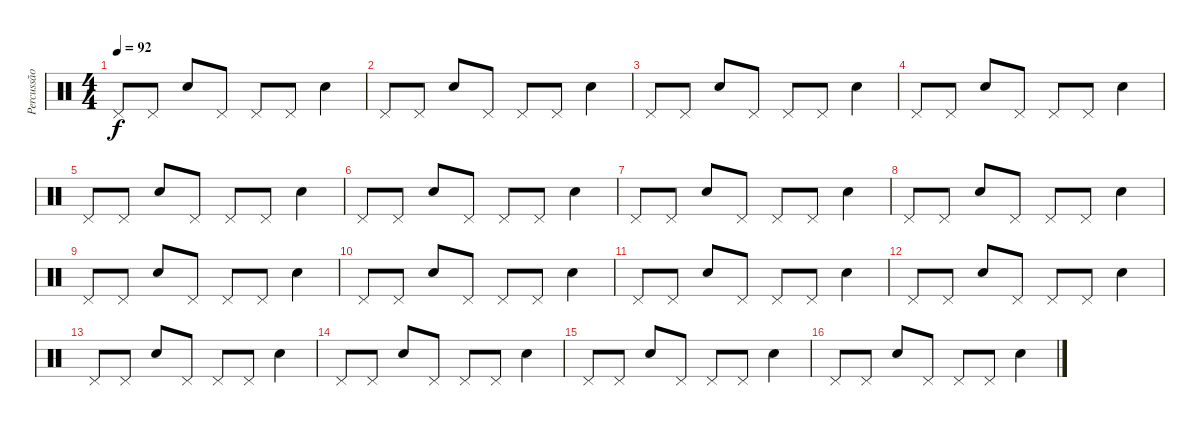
\track ("Percussão" "Percussão") {instrument percussion}
\staff {score}
\articulation defaults
\ts (4 4)
\tempo 92
\clef neutral
\ks c "Pedal Hi-Hat (hit)".8{dy f} "Pedal Hi-Hat (hit)".8 "Electric Snare (hit)".8 "Pedal Hi-Hat (hit)".8 "Pedal Hi-Hat (hit)".8 "Pedal Hi-Hat (hit)".8 "Electric Snare (hit)".4
|
"Pedal Hi-Hat (hit)".8 "Pedal Hi-Hat (hit)".8 "Electric Snare (hit)".8 "Pedal Hi-Hat (hit)".8 "Pedal Hi-Hat (hit)".8 "Pedal Hi-Hat (hit)".8 "Electric Snare (hit)".4 |
"Pedal Hi-Hat (hit)".8 "Pedal Hi-Hat (hit)".8 "Electric Snare (hit)".8 "Pedal Hi-Hat (hit)".8 "Pedal Hi-Hat (hit)".8 "Pedal Hi-Hat (hit)".8 "Electric Snare (hit)".4 |
"Pedal Hi-Hat (hit)".8 "Pedal Hi-Hat (hit)".8 "Electric Snare (hit)".8 "Pedal Hi-Hat (hit)".8 "Pedal Hi-Hat (hit)".8 "Pedal Hi-Hat (hit)".8 "Electric Snare (hit)".4 |
"Pedal Hi-Hat (hit)".8 "Pedal Hi-Hat (hit)".8 "Electric Snare (hit)".8 "Pedal Hi-Hat (hit)".8 "Pedal Hi-Hat (hit)".8 "Pedal Hi-Hat (hit)".8 "Electric Snare (hit)".4 |
"Pedal Hi-Hat (hit)".8 "Pedal Hi-Hat (hit)".8 "Electric Snare (hit)".8 "Pedal Hi-Hat (hit)".8 "Pedal Hi-Hat (hit)".8 "Pedal Hi-Hat (hit)".8 "Electric Snare (hit)".4 |
"Pedal Hi-Hat (hit)".8 "Pedal Hi-Hat (hit)".8 "Electric Snare (hit)".8 "Pedal Hi-Hat (hit)".8 "Pedal Hi-Hat (hit)".8 "Pedal Hi-Hat (hit)".8 "Electric Snare (hit)".4 |
"Pedal Hi-Hat (hit)".8 "Pedal Hi-Hat (hit)".8 "Electric Snare (hit)".8 "Pedal Hi-Hat (hit)".8 "Pedal Hi-Hat (hit)".8 "Pedal Hi-Hat (hit)".8 "Electric Snare (hit)".4 |
"Pedal Hi-Hat (hit)".8 "Pedal Hi-Hat (hit)".8 "Electric Snare (hit)".8 "Pedal Hi-Hat (hit)".8 "Pedal Hi-Hat (hit)".8 "Pedal Hi-Hat (hit)".8 "Electric Snare (hit)".4 |
"Pedal Hi-Hat (hit)".8 "Pedal Hi-Hat (hit)".8 "Electric Snare (hit)".8 "Pedal Hi-Hat (hit)".8 "Pedal Hi-Hat (hit)".8 "Pedal Hi-Hat (hit)".8 "Electric Snare (hit)".4 |
"Pedal Hi-Hat (hit)".8 "Pedal Hi-Hat (hit)".8 "Electric Snare (hit)".8 "Pedal Hi-Hat (hit)".8 "Pedal Hi-Hat (hit)".8 "Pedal Hi-Hat (hit)".8 "Electric Snare (hit)".4 |
"Pedal Hi-Hat (hit)".8 "Pedal Hi-Hat (hit)".8 "Electric Snare (hit)".8 "Pedal Hi-Hat (hit)".8 "Pedal Hi-Hat (hit)".8 "Pedal Hi-Hat (hit)".8 "Electric Snare (hit)".4 |
"Pedal Hi-Hat (hit)".8 "Pedal Hi-Hat (hit)".8 "Electric Snare (hit)".8 "Pedal Hi-Hat (hit)".8 "Pedal Hi-Hat (hit)".8 "Pedal Hi-Hat (hit)".8 "Electric Snare (hit)".4 |
"Pedal Hi-Hat (hit)".8 "Pedal Hi-Hat (hit)".8 "Electric Snare (hit)".8 "Pedal Hi-Hat (hit)".8 "Pedal Hi-Hat (hit)".8 "Pedal Hi-Hat (hit)".8 "Electric Snare (hit)".4 |
"Pedal Hi-Hat (hit)".8 "Pedal Hi-Hat (hit)".8 "Electric Snare (hit)".8 "Pedal Hi-Hat (hit)".8 "Pedal Hi-Hat (hit)".8 "Pedal Hi-Hat (hit)".8 "Electric Snare (hit)".4 |
"Pedal Hi-Hat (hit)".8 "Pedal Hi-Hat (hit)".8 "Electric Snare (hit)".8 "Pedal Hi-Hat (hit)".8 "Pedal Hi-Hat (hit)".8 "Pedal Hi-Hat (hit)".8 "Electric Snare (hit)".4
